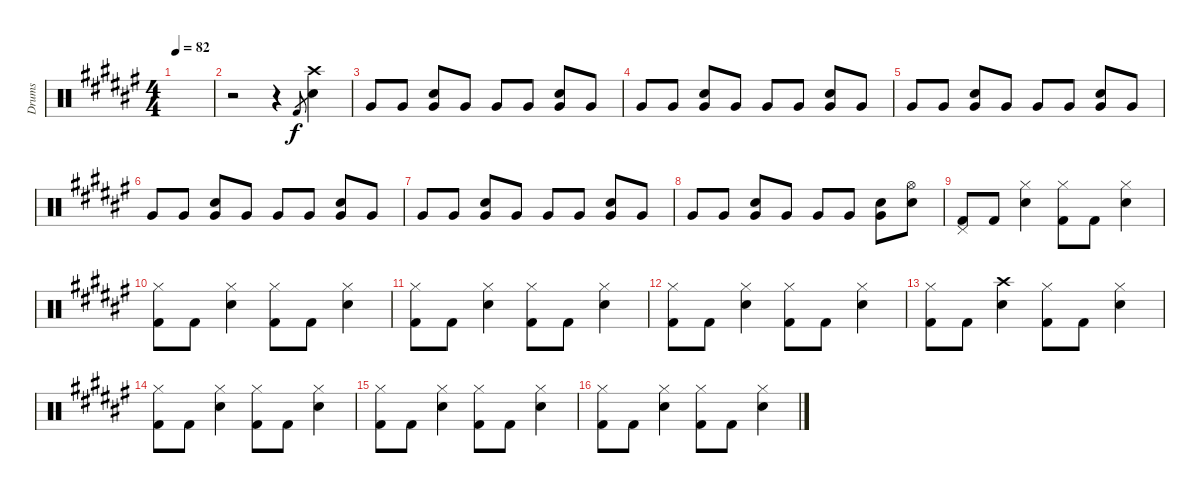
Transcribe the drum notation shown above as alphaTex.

\track ("Drums" "Drums") {instrument percussion}
\staff {score}
\articulation defaults
\ts (4 4)
\tempo 82
\clef neutral
\ks f#
|
r.2 r.4 "Kick (hit) 2".8{gr} ("Crash high (hit)" "Electric Snare (hit)").4 |
"Very Low Tom (hit)".8 "Very Low Tom (hit)".8 ("Electric Snare (hit)" "Very Low Tom (hit)").8 "Very Low Tom (hit)".8 "Very Low Tom (hit)".8 "Very Low Tom (hit)".8 ("Electric Snare (hit)" "Very Low Tom (hit)").8 "Very Low Tom (hit)".8 |
"Very Low Tom (hit)".8 "Very Low Tom (hit)".8 ("Electric Snare (hit)" "Very Low Tom (hit)").8 "Very Low Tom (hit)".8 "Very Low Tom (hit)".8 "Very Low Tom (hit)".8 ("Electric Snare (hit)" "Very Low Tom (hit)").8 "Very Low Tom (hit)".8 |
"Very Low Tom (hit)".8 "Very Low Tom (hit)".8 ("Electric Snare (hit)" "Very Low Tom (hit)").8 "Very Low Tom (hit)".8 "Very Low Tom (hit)".8 "Very Low Tom (hit)".8 ("Electric Snare (hit)" "Very Low Tom (hit)").8 "Very Low Tom (hit)".8 |
"Very Low Tom (hit)".8 "Very Low Tom (hit)".8 ("Electric Snare (hit)" "Very Low Tom (hit)").8 "Very Low Tom (hit)".8 "Very Low Tom (hit)".8 "Very Low Tom (hit)".8 ("Electric Snare (hit)" "Very Low Tom (hit)").8 "Very Low Tom (hit)".8 |
"Very Low Tom (hit)".8 "Very Low Tom (hit)".8 ("Electric Snare (hit)" "Very Low Tom (hit)").8 "Very Low Tom (hit)".8 "Very Low Tom (hit)".8 "Very Low Tom (hit)".8 ("Electric Snare (hit)" "Very Low Tom (hit)").8 "Very Low Tom (hit)".8 |
"Very Low Tom (hit)".8 "Very Low Tom (hit)".8 ("Electric Snare (hit)" "Very Low Tom (hit)").8 "Very Low Tom (hit)".8 "Very Low Tom (hit)".8 "Very Low Tom (hit)".8 ("Electric Snare (hit)" "Very Low Tom (hit)").8 ("Hi-Hat (open)" "Electric Snare (hit)").8 |
("Pedal Hi-Hat (hit)" "Kick (hit) 2").8 "Kick (hit) 2".8 ("Hi-Hat (closed)" "Electric Snare (hit)").4 ("Hi-Hat (closed)" "Kick (hit) 2").8 "Kick (hit) 2".8 ("Hi-Hat (closed)" "Electric Snare (hit)").4 |
("Hi-Hat (closed)" "Kick (hit) 2").8 "Kick (hit) 2".8 ("Hi-Hat (closed)" "Electric Snare (hit)").4 ("Hi-Hat (closed)" "Kick (hit) 2").8 "Kick (hit) 2".8 ("Hi-Hat (closed)" "Electric Snare (hit)").4 |
("Hi-Hat (closed)" "Kick (hit) 2").8 "Kick (hit) 2".8 ("Hi-Hat (closed)" "Electric Snare (hit)").4 ("Hi-Hat (closed)" "Kick (hit) 2").8 "Kick (hit) 2".8 ("Hi-Hat (closed)" "Electric Snare (hit)").4 |
("Hi-Hat (closed)" "Kick (hit) 2").8 "Kick (hit) 2".8 ("Hi-Hat (closed)" "Electric Snare (hit)").4 ("Hi-Hat (closed)" "Kick (hit) 2").8 "Kick (hit) 2".8 ("Hi-Hat (closed)" "Electric Snare (hit)").4 |
("Hi-Hat (closed)" "Kick (hit) 2").8 "Kick (hit) 2".8 ("Crash high (hit)" "Electric Snare (hit)").4 ("Hi-Hat (closed)" "Kick (hit) 2").8 "Kick (hit) 2".8 ("Hi-Hat (closed)" "Electric Snare (hit)").4 |
("Hi-Hat (closed)" "Kick (hit) 2").8 "Kick (hit) 2".8 ("Hi-Hat (closed)" "Electric Snare (hit)").4 ("Hi-Hat (closed)" "Kick (hit) 2").8 "Kick (hit) 2".8 ("Hi-Hat (closed)" "Electric Snare (hit)").4 |
("Hi-Hat (closed)" "Kick (hit) 2").8 "Kick (hit) 2".8 ("Hi-Hat (closed)" "Electric Snare (hit)").4 ("Hi-Hat (closed)" "Kick (hit) 2").8 "Kick (hit) 2".8 ("Hi-Hat (closed)" "Electric Snare (hit)").4 |
("Hi-Hat (closed)" "Kick (hit) 2").8 "Kick (hit) 2".8 ("Hi-Hat (closed)" "Electric Snare (hit)").4 ("Hi-Hat (closed)" "Kick (hit) 2").8 "Kick (hit) 2".8 ("Hi-Hat (closed)" "Electric Snare (hit)").4
